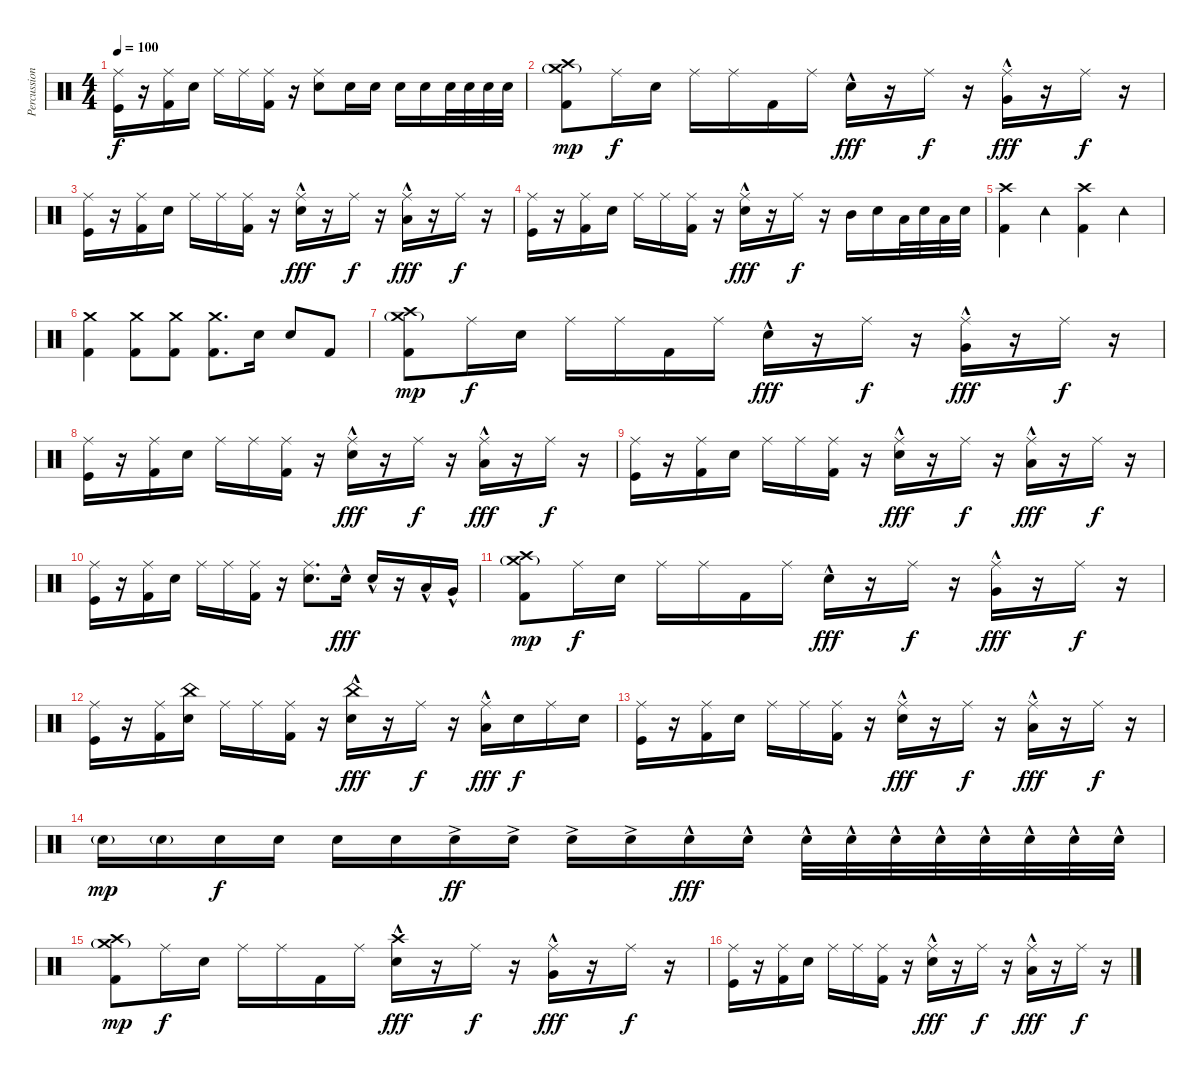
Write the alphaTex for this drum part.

\track ("Percussion" "Percussion") {instrument percussion}
\staff {score}
\articulation defaults
\ts (4 4)
\tempo 100
\clef neutral
\ks c
("Ride (middle)" "Kick (hit)").16{dy f} r.16 ("Ride (middle)" "Kick (hit) 2").16 "Electric Snare (hit)".16 "Ride (middle)".16 "Ride (middle)".16 ("Ride (middle)" "Kick (hit) 2").16 r.16 ("Ride (middle)" "Electric Snare (hit)").8 "Electric Snare (hit)".16 "Electric Snare (hit)".16 "Electric Snare (hit)".16 "Electric Snare (hit)".16 "Electric Snare (hit)".32 "Electric Snare (hit)".32 "Electric Snare (hit)".32 "Electric Snare (hit)".32 |
("Crash high (hit)" "Crash medium (hit)"{g} "Kick (hit) 2").8{dy mp} "Ride (middle)".16{dy f} "Electric Snare (hit)".16 "Ride (middle)".16 "Ride (middle)".16 "Kick (hit) 2".16 "Ride (middle)".16 "Electric Snare (hit)"{hac}.16{dy fff} r.16 "Ride (middle)".16{dy f} r.16 ("Ride (middle)" "Very Low Tom (hit)"{hac}).16{dy fff} r.16 "Ride (middle)".16{dy f} r.16 |
("Ride (middle)" "Kick (hit)").16 r.16 ("Ride (middle)" "Kick (hit) 2").16 "Electric Snare (hit)".16 "Ride (middle)".16 "Ride (middle)".16 ("Ride (middle)" "Kick (hit) 2").16 r.16 ("Ride (middle)" "Electric Snare (hit)"{hac}).16{dy fff} r.16 "Ride (middle)".16{dy f} r.16 ("Ride (middle)" "Low Floor Tom (hit)"{hac}).16{dy fff} r.16 "Ride (middle)".16{dy f} r.16 |
("Ride (middle)" "Kick (hit)").16 r.16 ("Ride (middle)" "Kick (hit) 2").16 "Electric Snare (hit)".16 "Ride (middle)".16 "Ride (middle)".16 ("Ride (middle)" "Kick (hit) 2").16 r.16 ("Ride (middle)" "Electric Snare (hit)"{hac}).16{dy fff} r.16 "Ride (middle)".16{dy f} r.16 "Mid Tom (hit)".16 "Electric Snare (hit)".16 "Low Tom (hit)".32 "Electric Snare (hit)".32 "Low Tom (hit)".32 "Electric Snare (hit)".32 |
("Crash high (hit)" "Kick (hit) 2").4 "Tambourine (hit)".4 ("Crash high (hit)" "Kick (hit) 2").4 "Tambourine (hit)".4 |
("Crash medium (hit)" "Kick (hit) 2").4 ("Crash medium (hit)" "Kick (hit) 2").8 ("Crash medium (hit)" "Kick (hit) 2").8 ("Crash medium (hit)" "Kick (hit) 2").8{d} "Electric Snare (hit)".16 "Electric Snare (hit)".8 "Kick (hit) 2".8 |
("Crash high (hit)" "Crash medium (hit)"{g} "Kick (hit) 2").8{dy mp} "Ride (middle)".16{dy f} "Electric Snare (hit)".16 "Ride (middle)".16 "Ride (middle)".16 "Kick (hit) 2".16 "Ride (middle)".16 "Electric Snare (hit)"{hac}.16{dy fff} r.16 "Ride (middle)".16{dy f} r.16 ("Ride (middle)" "Very Low Tom (hit)"{hac}).16{dy fff} r.16 "Ride (middle)".16{dy f} r.16 |
("Ride (middle)" "Kick (hit)").16 r.16 ("Ride (middle)" "Kick (hit) 2").16 "Electric Snare (hit)".16 "Ride (middle)".16 "Ride (middle)".16 ("Ride (middle)" "Kick (hit) 2").16 r.16 ("Ride (middle)" "Electric Snare (hit)"{hac}).16{dy fff} r.16 "Ride (middle)".16{dy f} r.16 ("Ride (middle)" "Low Floor Tom (hit)"{hac}).16{dy fff} r.16 "Ride (middle)".16{dy f} r.16 |
("Ride (middle)" "Kick (hit)").16 r.16 ("Ride (middle)" "Kick (hit) 2").16 "Electric Snare (hit)".16 "Ride (middle)".16 "Ride (middle)".16 ("Ride (middle)" "Kick (hit) 2").16 r.16 ("Ride (middle)" "Electric Snare (hit)"{hac}).16{dy fff} r.16 "Ride (middle)".16{dy f} r.16 ("Ride (middle)" "Low Tom (hit)"{hac}).16{dy fff} r.16 "Ride (middle)".16{dy f} r.16 |
("Ride (middle)" "Kick (hit)").16 r.16 ("Ride (middle)" "Kick (hit) 2").16 "Electric Snare (hit)".16 "Ride (middle)".16 "Ride (middle)".16 ("Ride (middle)" "Kick (hit) 2").16 r.16 ("Ride (middle)" "Electric Snare (hit)").8{d} "Electric Snare (hit)"{hac}.16{dy fff} "Electric Snare (hit)"{hac}.16 r.16 "Low Tom (hit)"{hac}.16 "Very Low Tom (hit)"{hac}.16 |
("Crash high (hit)" "Crash medium (hit)"{g} "Kick (hit) 2").8{dy mp} "Ride (middle)".16{dy f} "Electric Snare (hit)".16 "Ride (middle)".16 "Ride (middle)".16 "Kick (hit) 2".16 "Ride (middle)".16 "Electric Snare (hit)"{hac}.16{dy fff} r.16 "Ride (middle)".16{dy f} r.16 ("Ride (middle)" "Very Low Tom (hit)"{hac}).16{dy fff} r.16 "Ride (middle)".16{dy f} r.16 |
("Ride (middle)" "Kick (hit)").16 r.16 ("Ride (middle)" "Kick (hit) 2").16 ("China (hit)" "Electric Snare (hit)").16 "Ride (middle)".16 "Ride (middle)".16 ("Ride (middle)" "Kick (hit) 2").16 r.16 ("China (hit)" "Electric Snare (hit)"{hac}).16{dy fff} r.16 "Ride (middle)".16{dy f} r.16 ("Ride (middle)" "Low Floor Tom (hit)"{hac}).16{dy fff} "Electric Snare (hit)".16{dy f} "Ride (middle)".16 "Electric Snare (hit)".16 |
("Ride (middle)" "Kick (hit)").16 r.16 ("Ride (middle)" "Kick (hit) 2").16 "Electric Snare (hit)".16 "Ride (middle)".16 "Ride (middle)".16 ("Ride (middle)" "Kick (hit) 2").16 r.16 ("Ride (middle)" "Electric Snare (hit)"{hac}).16{dy fff} r.16 "Ride (middle)".16{dy f} r.16 ("Ride (middle)" "Low Tom (hit)"{hac}).16{dy fff} r.16 "Ride (middle)".16{dy f} r.16 |
"Electric Snare (hit)"{g}.16{dy mp} "Electric Snare (hit)"{g}.16 "Electric Snare (hit)".16{dy f} "Electric Snare (hit)".16 "Electric Snare (hit)".16 "Electric Snare (hit)".16 "Electric Snare (hit)"{ac}.16{dy ff} "Electric Snare (hit)"{ac}.16 "Electric Snare (hit)"{ac}.16 "Electric Snare (hit)"{ac}.16 "Electric Snare (hit)"{hac}.16{dy fff} "Electric Snare (hit)"{hac}.16 "Electric Snare (hit)"{hac}.32 "Electric Snare (hit)"{hac}.32 "Electric Snare (hit)"{hac}.32 "Electric Snare (hit)"{hac}.32 "Electric Snare (hit)"{hac}.32 "Electric Snare (hit)"{hac}.32 "Electric Snare (hit)"{hac}.32 "Electric Snare (hit)"{hac}.32 |
("Crash high (hit)" "Crash medium (hit)"{g} "Kick (hit) 2").8{dy mp} "Ride (middle)".16{dy f} "Electric Snare (hit)".16 "Ride (middle)".16 "Ride (middle)".16 "Kick (hit) 2".16 "Ride (middle)".16 ("Crash high (hit)" "Electric Snare (hit)"{hac}).16{dy fff} r.16 "Ride (middle)".16{dy f} r.16 ("Ride (middle)" "Very Low Tom (hit)"{hac}).16{dy fff} r.16 "Ride (middle)".16{dy f} r.16 |
("Ride (middle)" "Kick (hit)").16 r.16 ("Ride (middle)" "Kick (hit) 2").16 "Electric Snare (hit)".16 "Ride (middle)".16 "Ride (middle)".16 ("Ride (middle)" "Kick (hit) 2").16 r.16 ("Ride (middle)" "Electric Snare (hit)"{hac}).16{dy fff} r.16 "Ride (middle)".16{dy f} r.16 ("Ride (middle)" "Low Floor Tom (hit)"{hac}).16{dy fff} r.16 "Ride (middle)".16{dy f} r.16
